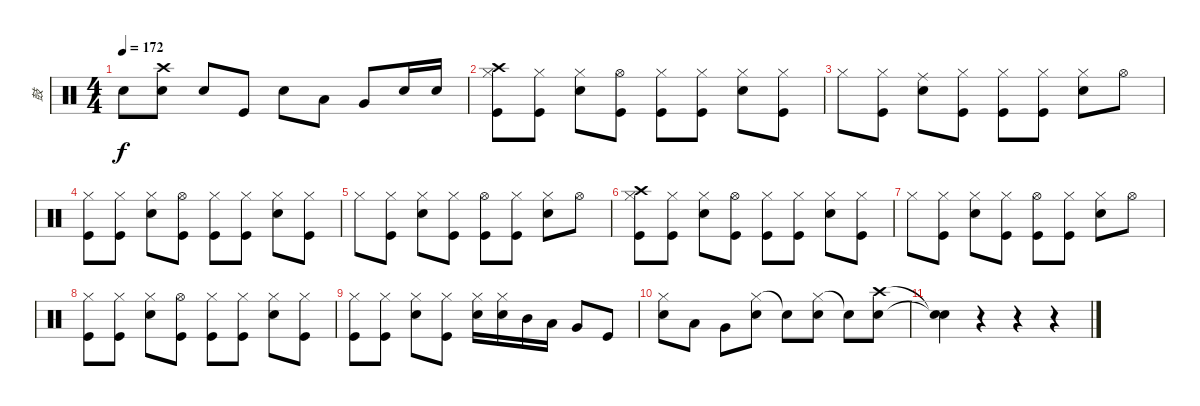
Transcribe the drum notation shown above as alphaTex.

\track ("鼓" "鼓") {instrument percussion}
\staff {score}
\articulation defaults
\ts (4 4)
\tempo 172
\clef neutral
\ks c "Snare (hit) 2"{t}.8{dy f}
("Crash high (hit)" "Snare (hit) 2").8 "Snare (hit) 2".8 "Kick (hit)".8 "Snare (hit) 2".8 "Low Tom (hit)".8 "Very Low Tom (hit)".8 "Snare (hit) 2".16 "Snare (hit) 2".16 |
("Crash high (hit)" "Hi-Hat (closed)" "Kick (hit)").8 ("Hi-Hat (closed)" "Kick (hit)").8 ("Hi-Hat (closed)" "Snare (hit) 2").8 ("Hi-Hat (open)" "Kick (hit)").8 ("Hi-Hat (closed)" "Kick (hit)").8 ("Hi-Hat (closed)" "Kick (hit)").8 ("Hi-Hat (closed)" "Snare (hit) 2").8 ("Hi-Hat (closed)" "Kick (hit)").8 |
"Hi-Hat (closed)".8 ("Hi-Hat (closed)" "Kick (hit)").8 ("Ride (middle)" "Snare (hit) 2").8 ("Hi-Hat (closed)" "Kick (hit)").8 ("Hi-Hat (closed)" "Kick (hit)").8 ("Hi-Hat (closed)" "Kick (hit)").8 ("Hi-Hat (closed)" "Snare (hit) 2").8 "Hi-Hat (open)".8 |
("Hi-Hat (closed)" "Kick (hit)").8 ("Hi-Hat (closed)" "Kick (hit)").8 ("Hi-Hat (closed)" "Snare (hit) 2").8 ("Hi-Hat (open)" "Kick (hit)").8 ("Hi-Hat (closed)" "Kick (hit)").8 ("Hi-Hat (closed)" "Kick (hit)").8 ("Hi-Hat (closed)" "Snare (hit) 2").8 ("Hi-Hat (closed)" "Kick (hit)").8 |
"Hi-Hat (closed)".8 ("Hi-Hat (closed)" "Kick (hit)").8 ("Hi-Hat (closed)" "Snare (hit) 2").8 ("Hi-Hat (closed)" "Kick (hit)").8 ("Hi-Hat (open)" "Kick (hit)").8 ("Hi-Hat (closed)" "Kick (hit)").8 ("Hi-Hat (closed)" "Snare (hit) 2").8 "Hi-Hat (open)".8 |
("Crash high (hit)" "Hi-Hat (closed)" "Kick (hit)").8 ("Hi-Hat (closed)" "Kick (hit)").8 ("Hi-Hat (closed)" "Snare (hit) 2").8 ("Hi-Hat (open)" "Kick (hit)").8 ("Hi-Hat (closed)" "Kick (hit)").8 ("Hi-Hat (closed)" "Kick (hit)").8 ("Hi-Hat (closed)" "Snare (hit) 2").8 ("Hi-Hat (closed)" "Kick (hit)").8 |
"Hi-Hat (closed)".8 ("Hi-Hat (closed)" "Kick (hit)").8 ("Hi-Hat (closed)" "Snare (hit) 2").8 ("Hi-Hat (closed)" "Kick (hit)").8 ("Hi-Hat (open)" "Kick (hit)").8 ("Hi-Hat (closed)" "Kick (hit)").8 ("Hi-Hat (closed)" "Snare (hit) 2").8 "Hi-Hat (open)".8 |
("Hi-Hat (closed)" "Kick (hit)").8 ("Hi-Hat (closed)" "Kick (hit)").8 ("Hi-Hat (closed)" "Snare (hit) 2").8 ("Hi-Hat (open)" "Kick (hit)").8 ("Hi-Hat (closed)" "Kick (hit)").8 ("Hi-Hat (closed)" "Kick (hit)").8 ("Hi-Hat (closed)" "Snare (hit) 2").8 ("Hi-Hat (closed)" "Kick (hit)").8 |
("Hi-Hat (closed)" "Kick (hit)").8 ("Hi-Hat (closed)" "Kick (hit)").8 ("Hi-Hat (closed)" "Snare (hit) 2").8 ("Hi-Hat (closed)" "Kick (hit)").8 ("Hi-Hat (closed)" "Snare (hit) 2").16 ("Hi-Hat (closed)" "Snare (hit) 2").16 "Mid Tom (hit)".16 "Low Tom (hit)".16 "Very Low Tom (hit)".8 "Kick (hit)".8 |
("Hi-Hat (closed)" "Snare (hit) 2").8 "Low Tom (hit)".8 "Very Low Tom (hit)".8 ("Hi-Hat (closed)" "Snare (hit) 2").8 "Snare (hit)"{t}.8 ("Hi-Hat (closed)" "Snare (hit) 2").8 "Snare (hit)"{t}.8 ("Crash high (hit)" "Snare (hit) 2").8 |
("Snare (hit)"{t} "Snare (hit)"{t}).4 r.4 r.4 r.4
